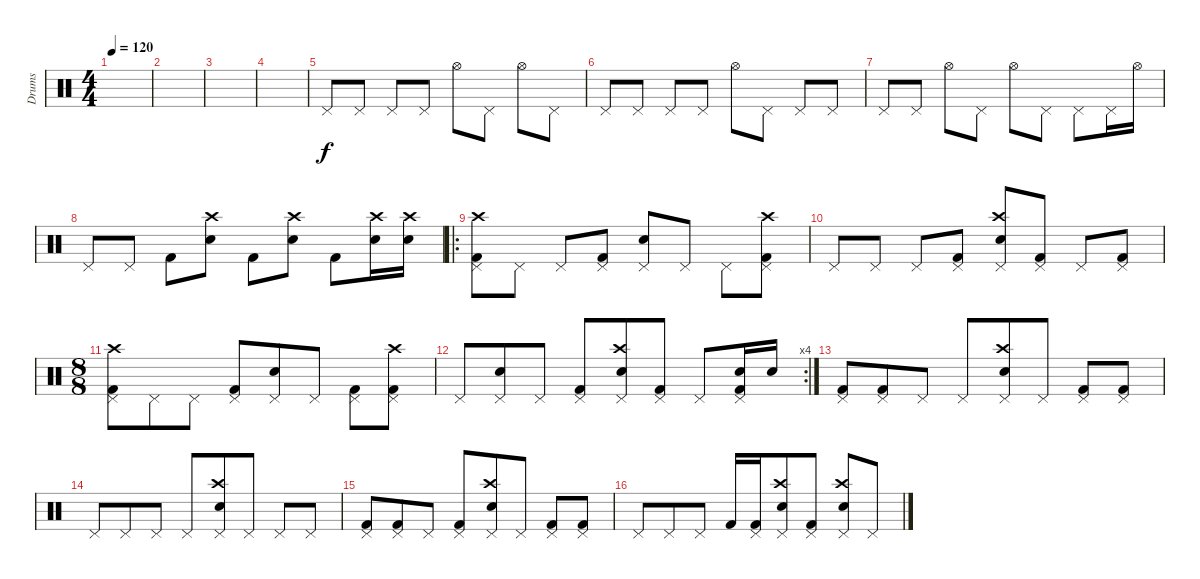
\track ("Drums" "Drums") {instrument percussion}
\staff {score}
\articulation defaults
\ts (4 4)
\tempo 120
\clef neutral
\ks c
|
|
|
|
"Pedal Hi-Hat (hit)".8 "Pedal Hi-Hat (hit)".8 "Pedal Hi-Hat (hit)".8 "Pedal Hi-Hat (hit)".8 "Hi-Hat (open)".8 "Pedal Hi-Hat (hit)".8 "Hi-Hat (open)".8 "Pedal Hi-Hat (hit)".8 |
"Pedal Hi-Hat (hit)".8 "Pedal Hi-Hat (hit)".8 "Pedal Hi-Hat (hit)".8 "Pedal Hi-Hat (hit)".8 "Hi-Hat (open)".8 "Pedal Hi-Hat (hit)".8 "Pedal Hi-Hat (hit)".8 "Pedal Hi-Hat (hit)".8 |
"Pedal Hi-Hat (hit)".8 "Pedal Hi-Hat (hit)".8 "Hi-Hat (open)".8 "Pedal Hi-Hat (hit)".8 "Hi-Hat (open)".8 "Pedal Hi-Hat (hit)".8 "Pedal Hi-Hat (hit)".8 "Pedal Hi-Hat (hit)".16 "Hi-Hat (open)".16 |
"Pedal Hi-Hat (hit)".8 "Pedal Hi-Hat (hit)".8 "Kick (hit) 2".8 ("Crash high (hit)" "Snare (hit) 2").8 "Kick (hit) 2".8 ("Crash high (hit)" "Snare (hit) 2").8 "Kick (hit) 2".8 ("Crash high (hit)" "Snare (hit) 2").16 ("Crash high (hit)" "Snare (hit) 2").16 |
\ro
("Crash high (hit)" "Kick (hit) 2" "Pedal Hi-Hat (hit)").8 "Pedal Hi-Hat (hit)".8 "Pedal Hi-Hat (hit)".8 ("Kick (hit) 2" "Pedal Hi-Hat (hit)").8 ("Snare (hit) 2" "Pedal Hi-Hat (hit)").8 "Pedal Hi-Hat (hit)".8 "Pedal Hi-Hat (hit)".8 ("Crash high (hit)" "Kick (hit) 2" "Pedal Hi-Hat (hit)").8 |
"Pedal Hi-Hat (hit)".8 "Pedal Hi-Hat (hit)".8 "Pedal Hi-Hat (hit)".8 ("Kick (hit) 2" "Pedal Hi-Hat (hit)").8 ("Crash high (hit)" "Snare (hit) 2" "Pedal Hi-Hat (hit)").8 ("Kick (hit) 2" "Pedal Hi-Hat (hit)").8 "Pedal Hi-Hat (hit)".8 ("Kick (hit) 2" "Pedal Hi-Hat (hit)").8 |
\ts (8 8)
("Crash high (hit)" "Kick (hit) 2" "Pedal Hi-Hat (hit)").8 "Pedal Hi-Hat (hit)".8 "Pedal Hi-Hat (hit)".8 ("Kick (hit) 2" "Pedal Hi-Hat (hit)").8 ("Snare (hit) 2" "Pedal Hi-Hat (hit)").8 "Pedal Hi-Hat (hit)".8 ("Kick (hit) 2" "Pedal Hi-Hat (hit)").8 ("Crash high (hit)" "Kick (hit) 2" "Pedal Hi-Hat (hit)").8 |
\rc 4 "Pedal Hi-Hat (hit)".8
("Snare (hit) 2" "Pedal Hi-Hat (hit)").8 "Pedal Hi-Hat (hit)".8 ("Kick (hit) 2" "Pedal Hi-Hat (hit)").8 ("Crash high (hit)" "Snare (hit) 2" "Pedal Hi-Hat (hit)").8 ("Kick (hit) 2" "Pedal Hi-Hat (hit)").8 "Pedal Hi-Hat (hit)".8 ("Snare (hit) 2" "Kick (hit) 2" "Pedal Hi-Hat (hit)").16 "Snare (hit) 2".16 |
("Kick (hit) 2" "Pedal Hi-Hat (hit)").8 ("Kick (hit) 2" "Pedal Hi-Hat (hit)").8 "Pedal Hi-Hat (hit)".8 "Pedal Hi-Hat (hit)".8 ("Crash high (hit)" "Snare (hit) 2" "Pedal Hi-Hat (hit)").8 "Pedal Hi-Hat (hit)".8 ("Kick (hit) 2" "Pedal Hi-Hat (hit)").8 ("Kick (hit) 2" "Pedal Hi-Hat (hit)").8 |
"Pedal Hi-Hat (hit)".8 "Pedal Hi-Hat (hit)".8 "Pedal Hi-Hat (hit)".8 "Pedal Hi-Hat (hit)".8 ("Crash high (hit)" "Snare (hit) 2" "Pedal Hi-Hat (hit)").8 "Pedal Hi-Hat (hit)".8 "Pedal Hi-Hat (hit)".8 "Pedal Hi-Hat (hit)".8 |
("Kick (hit) 2" "Pedal Hi-Hat (hit)").8 ("Kick (hit) 2" "Pedal Hi-Hat (hit)").8 "Pedal Hi-Hat (hit)".8 ("Kick (hit) 2" "Pedal Hi-Hat (hit)").8 ("Crash high (hit)" "Snare (hit) 2" "Pedal Hi-Hat (hit)").8 "Pedal Hi-Hat (hit)".8 ("Kick (hit) 2" "Pedal Hi-Hat (hit)").8 ("Kick (hit) 2" "Pedal Hi-Hat (hit)").8 |
"Pedal Hi-Hat (hit)".8 "Pedal Hi-Hat (hit)".8 "Pedal Hi-Hat (hit)".8 "Kick (hit) 2".16 ("Kick (hit) 2" "Pedal Hi-Hat (hit)").16 ("Crash high (hit)" "Snare (hit) 2" "Pedal Hi-Hat (hit)").8 ("Kick (hit) 2" "Pedal Hi-Hat (hit)").8 ("Crash high (hit)" "Snare (hit) 2" "Pedal Hi-Hat (hit)").8 "Pedal Hi-Hat (hit)".8
